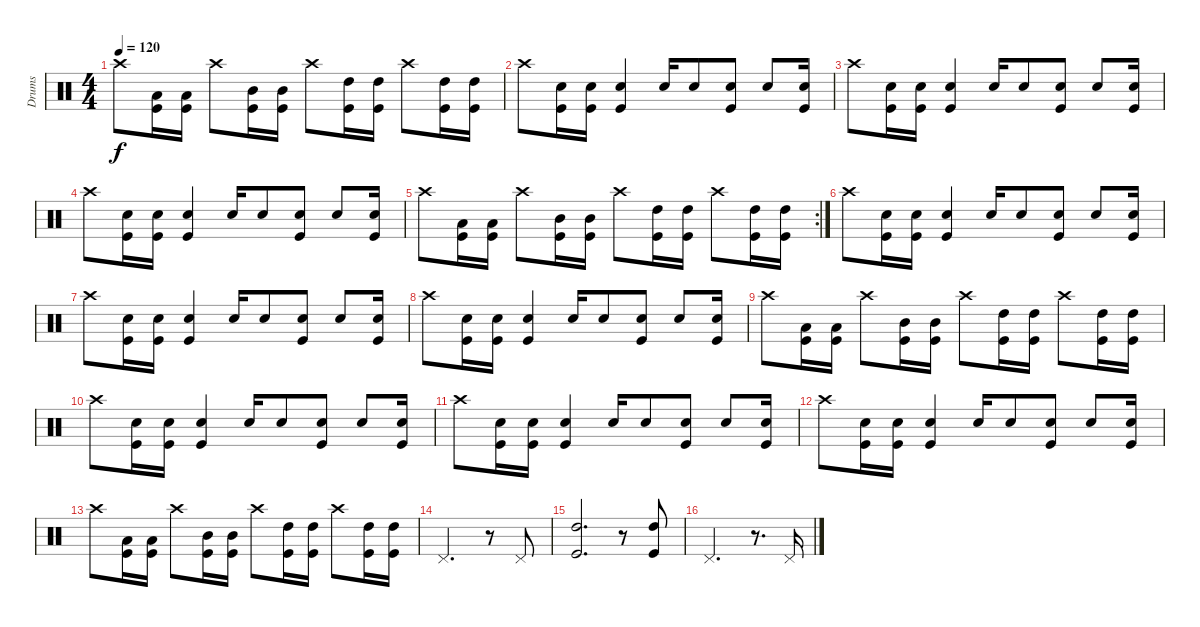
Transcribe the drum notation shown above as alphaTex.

\track ("Drums" "Drums") {instrument percussion}
\staff {score}
\articulation defaults
\ts (4 4)
\tempo 120
\clef neutral
\ks c "Crash high (hit)".8{dy f}
("Low Tom (hit)" "Kick (hit)").16 ("Low Tom (hit)" "Kick (hit)").16 "Crash high (hit)".8 ("Mid Tom (hit)" "Kick (hit)").16 ("Mid Tom (hit)" "Kick (hit)").16 "Crash high (hit)".8 ("High Tom (hit)" "Kick (hit)").16 ("High Tom (hit)" "Kick (hit)").16 "Crash high (hit)".8 ("High Tom (hit)" "Kick (hit)").16 ("High Tom (hit)" "Kick (hit)").16 |
"Crash high (hit)".8 ("Snare (hit) 2" "Kick (hit)").16 ("Snare (hit) 2" "Kick (hit)").16 ("Snare (hit) 2" "Kick (hit)").4 "Snare (hit) 2".16 "Snare (hit) 2".8 ("Snare (hit) 2" "Kick (hit)").8 "Snare (hit) 2".8 ("Snare (hit) 2" "Kick (hit)").16 |
"Crash high (hit)".8 ("Snare (hit) 2" "Kick (hit)").16 ("Snare (hit) 2" "Kick (hit)").16 ("Snare (hit) 2" "Kick (hit)").4 "Snare (hit) 2".16 "Snare (hit) 2".8 ("Snare (hit) 2" "Kick (hit)").8 "Snare (hit) 2".8 ("Snare (hit) 2" "Kick (hit)").16 |
"Crash high (hit)".8 ("Snare (hit) 2" "Kick (hit)").16 ("Snare (hit) 2" "Kick (hit)").16 ("Snare (hit) 2" "Kick (hit)").4 "Snare (hit) 2".16 "Snare (hit) 2".8 ("Snare (hit) 2" "Kick (hit)").8 "Snare (hit) 2".8 ("Snare (hit) 2" "Kick (hit)").16 |
\rc 2 "Crash high (hit)".8
("Low Tom (hit)" "Kick (hit)").16 ("Low Tom (hit)" "Kick (hit)").16 "Crash high (hit)".8 ("Mid Tom (hit)" "Kick (hit)").16 ("Mid Tom (hit)" "Kick (hit)").16 "Crash high (hit)".8 ("High Tom (hit)" "Kick (hit)").16 ("High Tom (hit)" "Kick (hit)").16 "Crash high (hit)".8 ("High Tom (hit)" "Kick (hit)").16 ("High Tom (hit)" "Kick (hit)").16 |
"Crash high (hit)".8 ("Snare (hit) 2" "Kick (hit)").16 ("Snare (hit) 2" "Kick (hit)").16 ("Snare (hit) 2" "Kick (hit)").4 "Snare (hit) 2".16 "Snare (hit) 2".8 ("Snare (hit) 2" "Kick (hit)").8 "Snare (hit) 2".8 ("Snare (hit) 2" "Kick (hit)").16 |
"Crash high (hit)".8 ("Snare (hit) 2" "Kick (hit)").16 ("Snare (hit) 2" "Kick (hit)").16 ("Snare (hit) 2" "Kick (hit)").4 "Snare (hit) 2".16 "Snare (hit) 2".8 ("Snare (hit) 2" "Kick (hit)").8 "Snare (hit) 2".8 ("Snare (hit) 2" "Kick (hit)").16 |
"Crash high (hit)".8 ("Snare (hit) 2" "Kick (hit)").16 ("Snare (hit) 2" "Kick (hit)").16 ("Snare (hit) 2" "Kick (hit)").4 "Snare (hit) 2".16 "Snare (hit) 2".8 ("Snare (hit) 2" "Kick (hit)").8 "Snare (hit) 2".8 ("Snare (hit) 2" "Kick (hit)").16 |
"Crash high (hit)".8 ("Low Tom (hit)" "Kick (hit)").16 ("Low Tom (hit)" "Kick (hit)").16 "Crash high (hit)".8 ("Mid Tom (hit)" "Kick (hit)").16 ("Mid Tom (hit)" "Kick (hit)").16 "Crash high (hit)".8 ("High Tom (hit)" "Kick (hit)").16 ("High Tom (hit)" "Kick (hit)").16 "Crash high (hit)".8 ("High Tom (hit)" "Kick (hit)").16 ("High Tom (hit)" "Kick (hit)").16 |
"Crash high (hit)".8 ("Snare (hit) 2" "Kick (hit)").16 ("Snare (hit) 2" "Kick (hit)").16 ("Snare (hit) 2" "Kick (hit)").4 "Snare (hit) 2".16 "Snare (hit) 2".8 ("Snare (hit) 2" "Kick (hit)").8 "Snare (hit) 2".8 ("Snare (hit) 2" "Kick (hit)").16 |
"Crash high (hit)".8 ("Snare (hit) 2" "Kick (hit)").16 ("Snare (hit) 2" "Kick (hit)").16 ("Snare (hit) 2" "Kick (hit)").4 "Snare (hit) 2".16 "Snare (hit) 2".8 ("Snare (hit) 2" "Kick (hit)").8 "Snare (hit) 2".8 ("Snare (hit) 2" "Kick (hit)").16 |
"Crash high (hit)".8 ("Snare (hit) 2" "Kick (hit)").16 ("Snare (hit) 2" "Kick (hit)").16 ("Snare (hit) 2" "Kick (hit)").4 "Snare (hit) 2".16 "Snare (hit) 2".8 ("Snare (hit) 2" "Kick (hit)").8 "Snare (hit) 2".8 ("Snare (hit) 2" "Kick (hit)").16 |
"Crash high (hit)".8 ("Low Tom (hit)" "Kick (hit)").16 ("Low Tom (hit)" "Kick (hit)").16 "Crash high (hit)".8 ("Mid Tom (hit)" "Kick (hit)").16 ("Mid Tom (hit)" "Kick (hit)").16 "Crash high (hit)".8 ("High Tom (hit)" "Kick (hit)").16 ("High Tom (hit)" "Kick (hit)").16 "Crash high (hit)".8 ("High Tom (hit)" "Kick (hit)").16 ("High Tom (hit)" "Kick (hit)").16 |
"Pedal Hi-Hat (hit)".2{d} r.8 "Pedal Hi-Hat (hit)".8 |
("High Tom (hit)" "Kick (hit)").2{d} r.8 ("High Tom (hit)" "Kick (hit)").8 |
"Pedal Hi-Hat (hit)".2{d} r.8{d} "Pedal Hi-Hat (hit)".16
